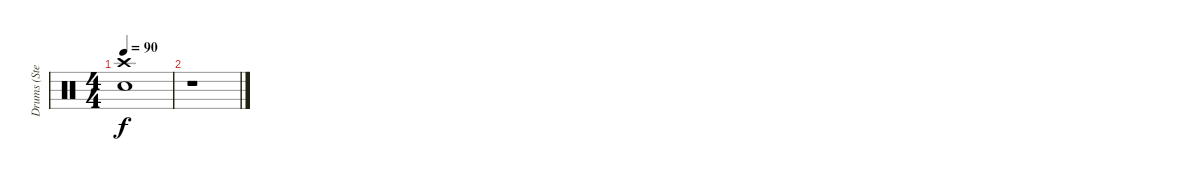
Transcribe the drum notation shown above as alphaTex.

\track ("Drums (Steven)" "Drums (Ste") {instrument percussion}
\staff {score}
\articulation defaults
\ts (4 4)
\tempo 90
\clef neutral
\ks c
("Crash high (hit)" "Snare (hit) 2").1{dy f} |
r.1
